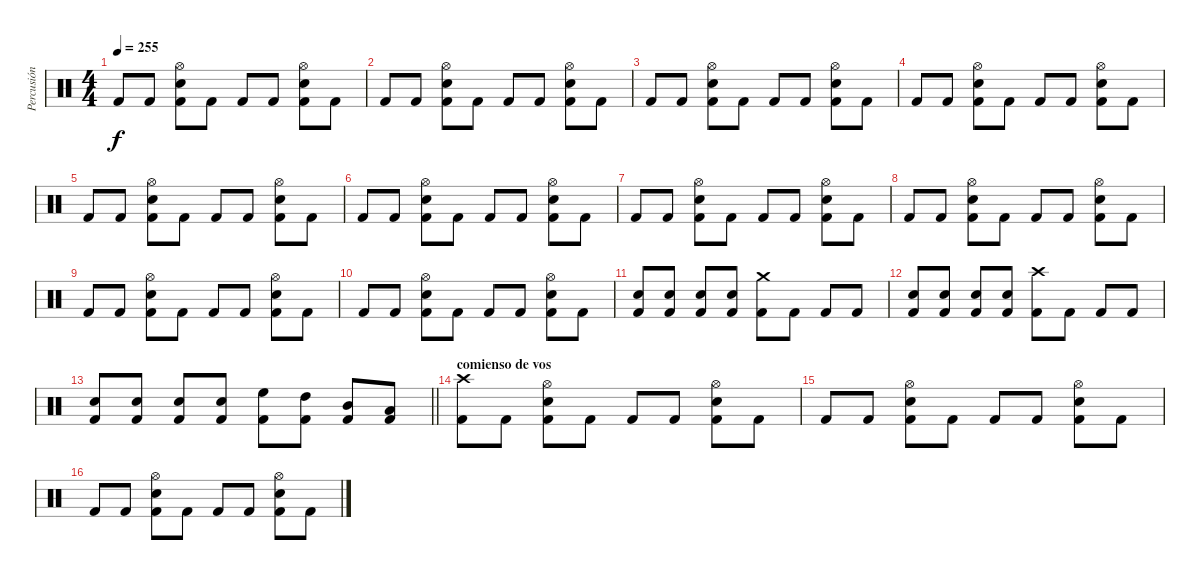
\track ("Percusión" "Percusión") {instrument percussion}
\staff {score}
\articulation defaults
\ts (4 4)
\tempo 255
\clef neutral
\ks c "Kick (hit) 2".8{dy f} "Kick (hit) 2".8
("Kick (hit) 2" "Electric Snare (hit)" "Hi-Hat (open)").8 "Kick (hit) 2".8 "Kick (hit) 2".8 "Kick (hit) 2".8 ("Kick (hit) 2" "Electric Snare (hit)" "Hi-Hat (open)").8 "Kick (hit) 2".8 |
"Kick (hit) 2".8 "Kick (hit) 2".8 ("Kick (hit) 2" "Electric Snare (hit)" "Hi-Hat (open)").8 "Kick (hit) 2".8 "Kick (hit) 2".8 "Kick (hit) 2".8 ("Kick (hit) 2" "Electric Snare (hit)" "Hi-Hat (open)").8 "Kick (hit) 2".8 |
"Kick (hit) 2".8 "Kick (hit) 2".8 ("Kick (hit) 2" "Electric Snare (hit)" "Hi-Hat (open)").8 "Kick (hit) 2".8 "Kick (hit) 2".8 "Kick (hit) 2".8 ("Kick (hit) 2" "Electric Snare (hit)" "Hi-Hat (open)").8 "Kick (hit) 2".8 |
"Kick (hit) 2".8 "Kick (hit) 2".8 ("Kick (hit) 2" "Electric Snare (hit)" "Hi-Hat (open)").8 "Kick (hit) 2".8 "Kick (hit) 2".8 "Kick (hit) 2".8 ("Kick (hit) 2" "Electric Snare (hit)" "Hi-Hat (open)").8 "Kick (hit) 2".8 |
"Kick (hit) 2".8 "Kick (hit) 2".8 ("Kick (hit) 2" "Electric Snare (hit)" "Hi-Hat (open)").8 "Kick (hit) 2".8 "Kick (hit) 2".8 "Kick (hit) 2".8 ("Kick (hit) 2" "Electric Snare (hit)" "Hi-Hat (open)").8 "Kick (hit) 2".8 |
"Kick (hit) 2".8 "Kick (hit) 2".8 ("Kick (hit) 2" "Electric Snare (hit)" "Hi-Hat (open)").8 "Kick (hit) 2".8 "Kick (hit) 2".8 "Kick (hit) 2".8 ("Kick (hit) 2" "Electric Snare (hit)" "Hi-Hat (open)").8 "Kick (hit) 2".8 |
"Kick (hit) 2".8 "Kick (hit) 2".8 ("Kick (hit) 2" "Electric Snare (hit)" "Hi-Hat (open)").8 "Kick (hit) 2".8 "Kick (hit) 2".8 "Kick (hit) 2".8 ("Kick (hit) 2" "Electric Snare (hit)" "Hi-Hat (open)").8 "Kick (hit) 2".8 |
"Kick (hit) 2".8 "Kick (hit) 2".8 ("Kick (hit) 2" "Electric Snare (hit)" "Hi-Hat (open)").8 "Kick (hit) 2".8 "Kick (hit) 2".8 "Kick (hit) 2".8 ("Kick (hit) 2" "Electric Snare (hit)" "Hi-Hat (open)").8 "Kick (hit) 2".8 |
"Kick (hit) 2".8 "Kick (hit) 2".8 ("Kick (hit) 2" "Electric Snare (hit)" "Hi-Hat (open)").8 "Kick (hit) 2".8 "Kick (hit) 2".8 "Kick (hit) 2".8 ("Kick (hit) 2" "Electric Snare (hit)" "Hi-Hat (open)").8 "Kick (hit) 2".8 |
"Kick (hit) 2".8 "Kick (hit) 2".8 ("Kick (hit) 2" "Electric Snare (hit)" "Hi-Hat (open)").8 "Kick (hit) 2".8 "Kick (hit) 2".8 "Kick (hit) 2".8 ("Kick (hit) 2" "Electric Snare (hit)" "Hi-Hat (open)").8 "Kick (hit) 2".8 |
("Kick (hit) 2" "Electric Snare (hit)").8 ("Kick (hit) 2" "Electric Snare (hit)").8 ("Kick (hit) 2" "Electric Snare (hit)").8 ("Kick (hit) 2" "Electric Snare (hit)").8 ("Kick (hit) 2" "Crash medium (hit)").8 "Kick (hit) 2".8 "Kick (hit) 2".8 "Kick (hit) 2".8 |
("Kick (hit) 2" "Electric Snare (hit)").8 ("Kick (hit) 2" "Electric Snare (hit)").8 ("Kick (hit) 2" "Electric Snare (hit)").8 ("Kick (hit) 2" "Electric Snare (hit)").8 ("Kick (hit) 2" "Crash high (hit)").8 "Kick (hit) 2".8 "Kick (hit) 2".8 "Kick (hit) 2".8 |
\barLineRight lightlight
("Kick (hit) 2" "Electric Snare (hit)").8 ("Kick (hit) 2" "Electric Snare (hit)").8 ("Kick (hit) 2" "Electric Snare (hit)").8 ("Kick (hit) 2" "Electric Snare (hit)").8 ("Kick (hit) 2" "High Floor Tom (hit)").8 ("Kick (hit) 2" "High Tom (hit)").8 ("Kick (hit) 2" "Mid Tom (hit)").8 ("Kick (hit) 2" "Low Tom (hit)").8 |
\section ("" "comienso de vos")
("Kick (hit) 2" "Crash high (hit)").8 "Kick (hit) 2".8 ("Kick (hit) 2" "Electric Snare (hit)" "Hi-Hat (open)").8 "Kick (hit) 2".8 "Kick (hit) 2".8 "Kick (hit) 2".8 ("Kick (hit) 2" "Electric Snare (hit)" "Hi-Hat (open)").8 "Kick (hit) 2".8 |
"Kick (hit) 2".8 "Kick (hit) 2".8 ("Kick (hit) 2" "Electric Snare (hit)" "Hi-Hat (open)").8 "Kick (hit) 2".8 "Kick (hit) 2".8 "Kick (hit) 2".8 ("Kick (hit) 2" "Electric Snare (hit)" "Hi-Hat (open)").8 "Kick (hit) 2".8 |
"Kick (hit) 2".8 "Kick (hit) 2".8 ("Kick (hit) 2" "Electric Snare (hit)" "Hi-Hat (open)").8 "Kick (hit) 2".8 "Kick (hit) 2".8 "Kick (hit) 2".8 ("Kick (hit) 2" "Electric Snare (hit)" "Hi-Hat (open)").8 "Kick (hit) 2".8
